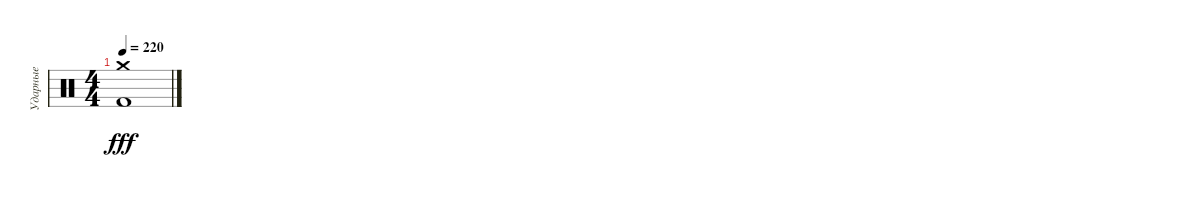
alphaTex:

\track ("Ударные" "Ударные") {instrument percussion}
\staff {score}
\articulation defaults
\ts (4 4)
\tempo 220
\clef neutral
\ks c
("Crash medium (hit)" "Kick (hit) 2").1{dy fff}
